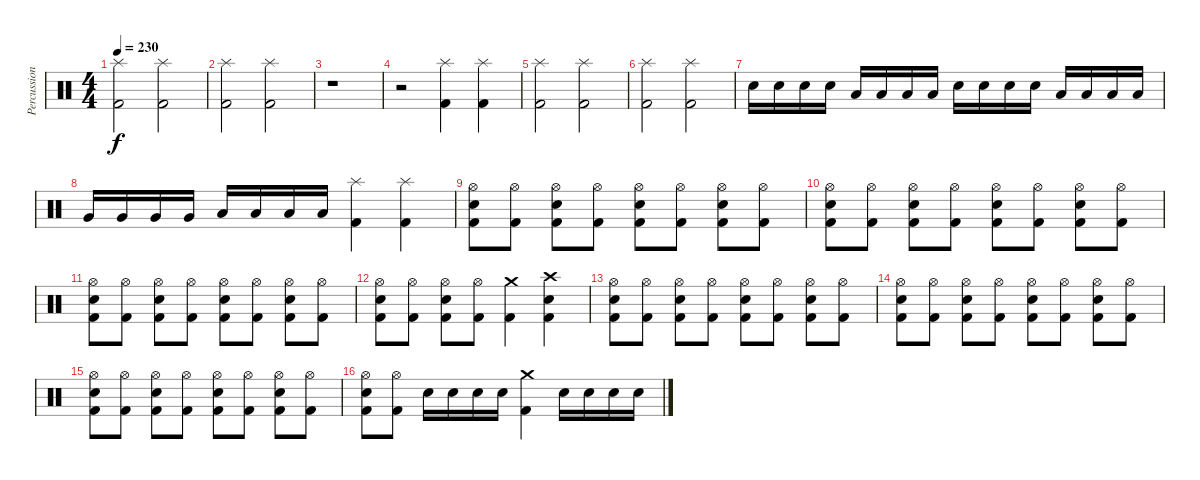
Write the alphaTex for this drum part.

\track ("Percussions" "Percussion") {instrument percussion}
\staff {score}
\articulation defaults
\ts (4 4)
\tempo 230
\tempo 220
\tempo 230
\clef neutral
\ks c
("Kick (hit) 2" "Splash (hit)").2{dy f} ("Kick (hit) 2" "Splash (hit)").2 |
("Kick (hit) 2" "Splash (hit)").2 ("Kick (hit) 2" "Splash (hit)").2 |
r.1 |
r.2 ("Kick (hit) 2" "Splash (hit)").4 ("Kick (hit) 2" "Splash (hit)").4 |
("Kick (hit) 2" "Splash (hit)").2 ("Kick (hit) 2" "Splash (hit)").2 |
("Kick (hit) 2" "Splash (hit)").2 ("Kick (hit) 2" "Splash (hit)").2 |
"Snare (hit) 2".16 "Snare (hit) 2".16 "Snare (hit) 2".16 "Snare (hit) 2".16 "Low Tom (hit)".16 "Low Tom (hit)".16 "Low Tom (hit)".16 "Low Tom (hit)".16 "Snare (hit) 2".16 "Snare (hit) 2".16 "Snare (hit) 2".16 "Snare (hit) 2".16 "Low Tom (hit)".16 "Low Tom (hit)".16 "Low Tom (hit)".16 "Low Tom (hit)".16 |
"Very Low Tom (hit)".16 "Very Low Tom (hit)".16 "Very Low Tom (hit)".16 "Very Low Tom (hit)".16 "Low Floor Tom (hit)".16 "Low Floor Tom (hit)".16 "Low Floor Tom (hit)".16 "Low Floor Tom (hit)".16 ("Kick (hit) 2" "Splash (hit)").4 ("Kick (hit) 2" "Splash (hit)").4 |
("Kick (hit) 2" "Snare (hit) 2" "Hi-Hat (open)").8 ("Kick (hit) 2" "Hi-Hat (open)").8 ("Kick (hit) 2" "Snare (hit) 2" "Hi-Hat (open)").8 ("Kick (hit) 2" "Hi-Hat (open)").8 ("Kick (hit) 2" "Snare (hit) 2" "Hi-Hat (open)").8 ("Kick (hit) 2" "Hi-Hat (open)").8 ("Kick (hit) 2" "Snare (hit) 2" "Hi-Hat (open)").8 ("Kick (hit) 2" "Hi-Hat (open)").8 |
("Kick (hit) 2" "Snare (hit) 2" "Hi-Hat (open)").8 ("Kick (hit) 2" "Hi-Hat (open)").8 ("Kick (hit) 2" "Snare (hit) 2" "Hi-Hat (open)").8 ("Kick (hit) 2" "Hi-Hat (open)").8 ("Kick (hit) 2" "Snare (hit) 2" "Hi-Hat (open)").8 ("Kick (hit) 2" "Hi-Hat (open)").8 ("Kick (hit) 2" "Snare (hit) 2" "Hi-Hat (open)").8 ("Kick (hit) 2" "Hi-Hat (open)").8 |
("Kick (hit) 2" "Snare (hit) 2" "Hi-Hat (open)").8 ("Kick (hit) 2" "Hi-Hat (open)").8 ("Kick (hit) 2" "Snare (hit) 2" "Hi-Hat (open)").8 ("Kick (hit) 2" "Hi-Hat (open)").8 ("Kick (hit) 2" "Snare (hit) 2" "Hi-Hat (open)").8 ("Kick (hit) 2" "Hi-Hat (open)").8 ("Kick (hit) 2" "Snare (hit) 2" "Hi-Hat (open)").8 ("Kick (hit) 2" "Hi-Hat (open)").8 |
("Kick (hit) 2" "Snare (hit) 2" "Hi-Hat (open)").8 ("Kick (hit) 2" "Hi-Hat (open)").8 ("Kick (hit) 2" "Snare (hit) 2" "Hi-Hat (open)").8 ("Kick (hit) 2" "Hi-Hat (open)").8 ("Kick (hit) 2" "Crash medium (hit)").4 ("Kick (hit) 2" "Snare (hit) 2" "Crash high (hit)").4 |
("Kick (hit) 2" "Snare (hit) 2" "Hi-Hat (open)").8 ("Kick (hit) 2" "Hi-Hat (open)").8 ("Kick (hit) 2" "Snare (hit) 2" "Hi-Hat (open)").8 ("Kick (hit) 2" "Hi-Hat (open)").8 ("Kick (hit) 2" "Snare (hit) 2" "Hi-Hat (open)").8 ("Kick (hit) 2" "Hi-Hat (open)").8 ("Kick (hit) 2" "Snare (hit) 2" "Hi-Hat (open)").8 ("Kick (hit) 2" "Hi-Hat (open)").8 |
("Kick (hit) 2" "Snare (hit) 2" "Hi-Hat (open)").8 ("Kick (hit) 2" "Hi-Hat (open)").8 ("Kick (hit) 2" "Snare (hit) 2" "Hi-Hat (open)").8 ("Kick (hit) 2" "Hi-Hat (open)").8 ("Kick (hit) 2" "Snare (hit) 2" "Hi-Hat (open)").8 ("Kick (hit) 2" "Hi-Hat (open)").8 ("Kick (hit) 2" "Snare (hit) 2" "Hi-Hat (open)").8 ("Kick (hit) 2" "Hi-Hat (open)").8 |
("Kick (hit) 2" "Snare (hit) 2" "Hi-Hat (open)").8 ("Kick (hit) 2" "Hi-Hat (open)").8 ("Kick (hit) 2" "Snare (hit) 2" "Hi-Hat (open)").8 ("Kick (hit) 2" "Hi-Hat (open)").8 ("Kick (hit) 2" "Snare (hit) 2" "Hi-Hat (open)").8 ("Kick (hit) 2" "Hi-Hat (open)").8 ("Kick (hit) 2" "Snare (hit) 2" "Hi-Hat (open)").8 ("Kick (hit) 2" "Hi-Hat (open)").8 |
("Kick (hit) 2" "Snare (hit) 2" "Hi-Hat (open)").8 ("Kick (hit) 2" "Hi-Hat (open)").8 "Snare (hit) 2".16 "Snare (hit) 2".16 "Snare (hit) 2".16 "Snare (hit) 2".16 ("Kick (hit) 2" "Crash medium (hit)").4 "Snare (hit) 2".16 "Snare (hit) 2".16 "Snare (hit) 2".16 "Snare (hit) 2".16
